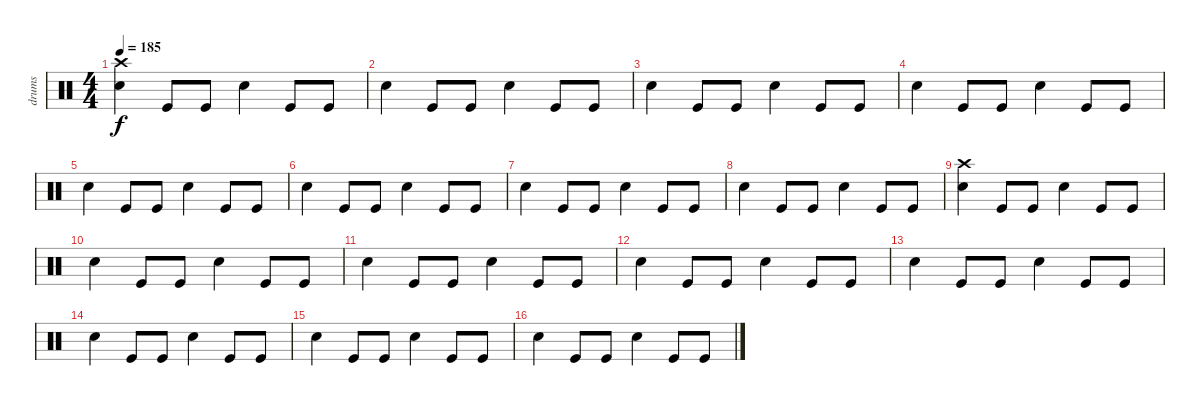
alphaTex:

\track ("drums" "drums") {instrument percussion}
\staff {score}
\articulation defaults
\ts (4 4)
\tempo 185
\clef neutral
\ks c
("Crash high (hit)" "Electric Snare (hit)").4{dy f} "Kick (hit)".8 "Kick (hit)".8 "Electric Snare (hit)".4 "Kick (hit)".8 "Kick (hit)".8 |
"Electric Snare (hit)".4 "Kick (hit)".8 "Kick (hit)".8 "Electric Snare (hit)".4 "Kick (hit)".8 "Kick (hit)".8 |
"Electric Snare (hit)".4 "Kick (hit)".8 "Kick (hit)".8 "Electric Snare (hit)".4 "Kick (hit)".8 "Kick (hit)".8 |
"Electric Snare (hit)".4 "Kick (hit)".8 "Kick (hit)".8 "Electric Snare (hit)".4 "Kick (hit)".8 "Kick (hit)".8 |
"Electric Snare (hit)".4 "Kick (hit)".8 "Kick (hit)".8 "Electric Snare (hit)".4 "Kick (hit)".8 "Kick (hit)".8 |
"Electric Snare (hit)".4 "Kick (hit)".8 "Kick (hit)".8 "Electric Snare (hit)".4 "Kick (hit)".8 "Kick (hit)".8 |
"Electric Snare (hit)".4 "Kick (hit)".8 "Kick (hit)".8 "Electric Snare (hit)".4 "Kick (hit)".8 "Kick (hit)".8 |
"Electric Snare (hit)".4 "Kick (hit)".8 "Kick (hit)".8 "Electric Snare (hit)".4 "Kick (hit)".8 "Kick (hit)".8 |
("Crash high (hit)" "Electric Snare (hit)").4 "Kick (hit)".8 "Kick (hit)".8 "Electric Snare (hit)".4 "Kick (hit)".8 "Kick (hit)".8 |
"Electric Snare (hit)".4 "Kick (hit)".8 "Kick (hit)".8 "Electric Snare (hit)".4 "Kick (hit)".8 "Kick (hit)".8 |
"Electric Snare (hit)".4 "Kick (hit)".8 "Kick (hit)".8 "Electric Snare (hit)".4 "Kick (hit)".8 "Kick (hit)".8 |
"Electric Snare (hit)".4 "Kick (hit)".8 "Kick (hit)".8 "Electric Snare (hit)".4 "Kick (hit)".8 "Kick (hit)".8 |
"Electric Snare (hit)".4 "Kick (hit)".8 "Kick (hit)".8 "Electric Snare (hit)".4 "Kick (hit)".8 "Kick (hit)".8 |
"Electric Snare (hit)".4 "Kick (hit)".8 "Kick (hit)".8 "Electric Snare (hit)".4 "Kick (hit)".8 "Kick (hit)".8 |
"Electric Snare (hit)".4 "Kick (hit)".8 "Kick (hit)".8 "Electric Snare (hit)".4 "Kick (hit)".8 "Kick (hit)".8 |
"Electric Snare (hit)".4 "Kick (hit)".8 "Kick (hit)".8 "Electric Snare (hit)".4 "Kick (hit)".8 "Kick (hit)".8
